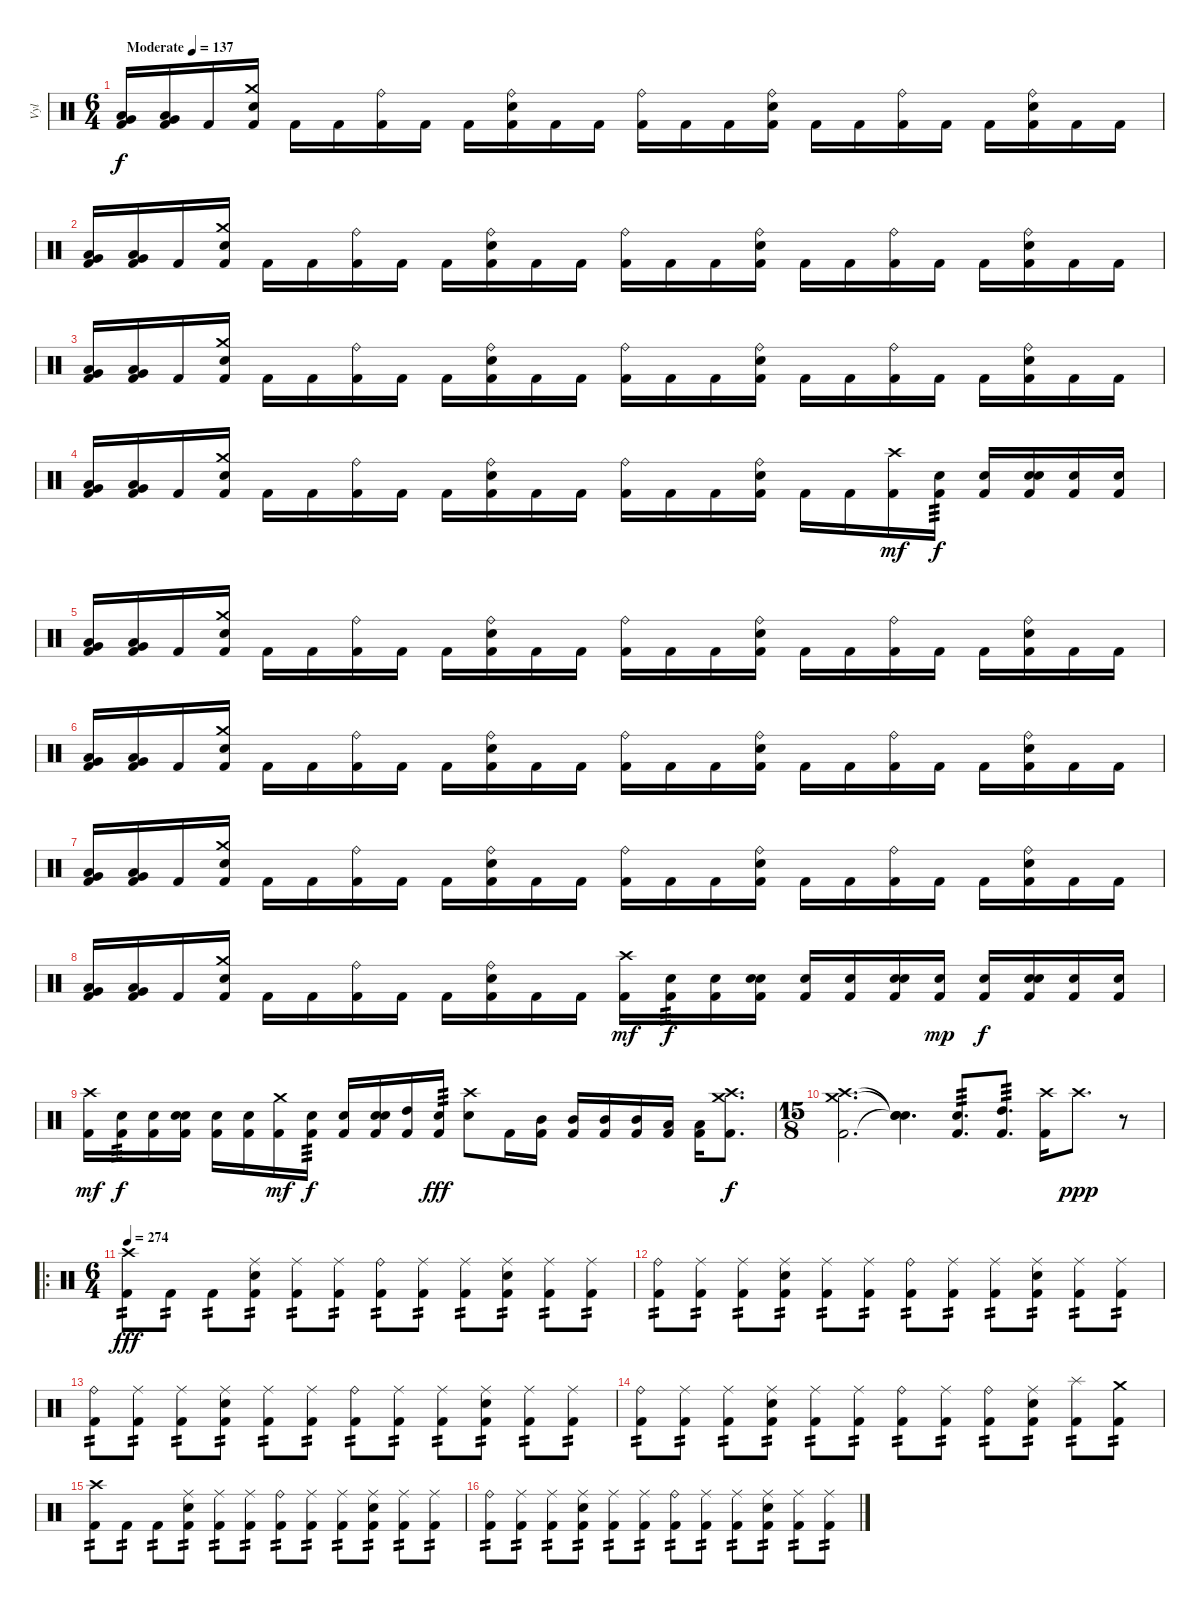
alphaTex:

\track ("Vyl" "Vyl") {instrument percussion}
\staff {score}
\articulation defaults
\ts (6 4)
\tempo (137 "Moderate")
\clef neutral
\ks c
("Low Tom (hit)" "Very Low Tom (hit)" "Kick (hit) 2").16{dy f} ("Low Tom (hit)" "Very Low Tom (hit)" "Kick (hit) 2").16 "Kick (hit) 2".16 ("Crash medium (hit)" "Snare (hit) 2" "Kick (hit) 2").16 "Kick (hit) 2".16 "Kick (hit) 2".16 ("Ride (bell)" "Kick (hit) 2").16 "Kick (hit) 2".16 "Kick (hit) 2".16 ("Ride (bell)" "Snare (hit) 2" "Kick (hit) 2").16 "Kick (hit) 2".16 "Kick (hit) 2".16 ("Ride (bell)" "Kick (hit) 2").16 "Kick (hit) 2".16 "Kick (hit) 2".16 ("Ride (bell)" "Snare (hit) 2" "Kick (hit) 2").16 "Kick (hit) 2".16 "Kick (hit) 2".16 ("Ride (bell)" "Kick (hit) 2").16 "Kick (hit) 2".16 "Kick (hit) 2".16 ("Ride (bell)" "Snare (hit) 2" "Kick (hit) 2").16 "Kick (hit) 2".16 "Kick (hit) 2".16 |
("Low Tom (hit)" "Very Low Tom (hit)" "Kick (hit) 2").16 ("Low Tom (hit)" "Very Low Tom (hit)" "Kick (hit) 2").16 "Kick (hit) 2".16 ("Crash medium (hit)" "Snare (hit) 2" "Kick (hit) 2").16 "Kick (hit) 2".16 "Kick (hit) 2".16 ("Ride (bell)" "Kick (hit) 2").16 "Kick (hit) 2".16 "Kick (hit) 2".16 ("Ride (bell)" "Snare (hit) 2" "Kick (hit) 2").16 "Kick (hit) 2".16 "Kick (hit) 2".16 ("Ride (bell)" "Kick (hit) 2").16 "Kick (hit) 2".16 "Kick (hit) 2".16 ("Ride (bell)" "Snare (hit) 2" "Kick (hit) 2").16 "Kick (hit) 2".16 "Kick (hit) 2".16 ("Ride (bell)" "Kick (hit) 2").16 "Kick (hit) 2".16 "Kick (hit) 2".16 ("Ride (bell)" "Snare (hit) 2" "Kick (hit) 2").16 "Kick (hit) 2".16 "Kick (hit) 2".16 |
("Low Tom (hit)" "Very Low Tom (hit)" "Kick (hit) 2").16 ("Low Tom (hit)" "Very Low Tom (hit)" "Kick (hit) 2").16 "Kick (hit) 2".16 ("Crash medium (hit)" "Snare (hit) 2" "Kick (hit) 2").16 "Kick (hit) 2".16 "Kick (hit) 2".16 ("Ride (bell)" "Kick (hit) 2").16 "Kick (hit) 2".16 "Kick (hit) 2".16 ("Ride (bell)" "Snare (hit) 2" "Kick (hit) 2").16 "Kick (hit) 2".16 "Kick (hit) 2".16 ("Ride (bell)" "Kick (hit) 2").16 "Kick (hit) 2".16 "Kick (hit) 2".16 ("Ride (bell)" "Snare (hit) 2" "Kick (hit) 2").16 "Kick (hit) 2".16 "Kick (hit) 2".16 ("Ride (bell)" "Kick (hit) 2").16 "Kick (hit) 2".16 "Kick (hit) 2".16 ("Ride (bell)" "Snare (hit) 2" "Kick (hit) 2").16 "Kick (hit) 2".16 "Kick (hit) 2".16 |
("Low Tom (hit)" "Very Low Tom (hit)" "Kick (hit) 2").16 ("Low Tom (hit)" "Very Low Tom (hit)" "Kick (hit) 2").16 "Kick (hit) 2".16 ("Crash medium (hit)" "Snare (hit) 2" "Kick (hit) 2").16 "Kick (hit) 2".16 "Kick (hit) 2".16 ("Ride (bell)" "Kick (hit) 2").16 "Kick (hit) 2".16 "Kick (hit) 2".16 ("Ride (bell)" "Snare (hit) 2" "Kick (hit) 2").16 "Kick (hit) 2".16 "Kick (hit) 2".16 ("Ride (bell)" "Kick (hit) 2").16 "Kick (hit) 2".16 "Kick (hit) 2".16 ("Ride (bell)" "Snare (hit) 2" "Kick (hit) 2").16 "Kick (hit) 2".16 "Kick (hit) 2".16 ("Crash high (hit)" "Kick (hit) 2").16{dy mf} ("Snare (hit) 2" "Kick (hit) 2").16{tp 3 dy f} ("Snare (hit) 2" "Kick (hit) 2").16 ("Snare (hit)" "Snare (hit) 2" "Kick (hit) 2").16 ("Snare (hit) 2" "Kick (hit) 2").16 ("Snare (hit) 2" "Kick (hit) 2").16 |
("Low Tom (hit)" "Very Low Tom (hit)" "Kick (hit) 2").16 ("Low Tom (hit)" "Very Low Tom (hit)" "Kick (hit) 2").16 "Kick (hit) 2".16 ("Crash medium (hit)" "Snare (hit) 2" "Kick (hit) 2").16 "Kick (hit) 2".16 "Kick (hit) 2".16 ("Ride (bell)" "Kick (hit) 2").16 "Kick (hit) 2".16 "Kick (hit) 2".16 ("Ride (bell)" "Snare (hit) 2" "Kick (hit) 2").16 "Kick (hit) 2".16 "Kick (hit) 2".16 ("Ride (bell)" "Kick (hit) 2").16 "Kick (hit) 2".16 "Kick (hit) 2".16 ("Ride (bell)" "Snare (hit) 2" "Kick (hit) 2").16 "Kick (hit) 2".16 "Kick (hit) 2".16 ("Ride (bell)" "Kick (hit) 2").16 "Kick (hit) 2".16 "Kick (hit) 2".16 ("Ride (bell)" "Snare (hit) 2" "Kick (hit) 2").16 "Kick (hit) 2".16 "Kick (hit) 2".16 |
("Low Tom (hit)" "Very Low Tom (hit)" "Kick (hit) 2").16 ("Low Tom (hit)" "Very Low Tom (hit)" "Kick (hit) 2").16 "Kick (hit) 2".16 ("Crash medium (hit)" "Snare (hit) 2" "Kick (hit) 2").16 "Kick (hit) 2".16 "Kick (hit) 2".16 ("Ride (bell)" "Kick (hit) 2").16 "Kick (hit) 2".16 "Kick (hit) 2".16 ("Ride (bell)" "Snare (hit) 2" "Kick (hit) 2").16 "Kick (hit) 2".16 "Kick (hit) 2".16 ("Ride (bell)" "Kick (hit) 2").16 "Kick (hit) 2".16 "Kick (hit) 2".16 ("Ride (bell)" "Snare (hit) 2" "Kick (hit) 2").16 "Kick (hit) 2".16 "Kick (hit) 2".16 ("Ride (bell)" "Kick (hit) 2").16 "Kick (hit) 2".16 "Kick (hit) 2".16 ("Ride (bell)" "Snare (hit) 2" "Kick (hit) 2").16 "Kick (hit) 2".16 "Kick (hit) 2".16 |
("Low Tom (hit)" "Very Low Tom (hit)" "Kick (hit) 2").16 ("Low Tom (hit)" "Very Low Tom (hit)" "Kick (hit) 2").16 "Kick (hit) 2".16 ("Crash medium (hit)" "Snare (hit) 2" "Kick (hit) 2").16 "Kick (hit) 2".16 "Kick (hit) 2".16 ("Ride (bell)" "Kick (hit) 2").16 "Kick (hit) 2".16 "Kick (hit) 2".16 ("Ride (bell)" "Snare (hit) 2" "Kick (hit) 2").16 "Kick (hit) 2".16 "Kick (hit) 2".16 ("Ride (bell)" "Kick (hit) 2").16 "Kick (hit) 2".16 "Kick (hit) 2".16 ("Ride (bell)" "Snare (hit) 2" "Kick (hit) 2").16 "Kick (hit) 2".16 "Kick (hit) 2".16 ("Ride (bell)" "Kick (hit) 2").16 "Kick (hit) 2".16 "Kick (hit) 2".16 ("Ride (bell)" "Snare (hit) 2" "Kick (hit) 2").16 "Kick (hit) 2".16 "Kick (hit) 2".16 |
("Low Tom (hit)" "Very Low Tom (hit)" "Kick (hit) 2").16 ("Low Tom (hit)" "Very Low Tom (hit)" "Kick (hit) 2").16 "Kick (hit) 2".16 ("Crash medium (hit)" "Snare (hit) 2" "Kick (hit) 2").16 "Kick (hit) 2".16 "Kick (hit) 2".16 ("Ride (bell)" "Kick (hit) 2").16 "Kick (hit) 2".16 "Kick (hit) 2".16 ("Ride (bell)" "Snare (hit) 2" "Kick (hit) 2").16 "Kick (hit) 2".16 "Kick (hit) 2".16 ("Crash high (hit)" "Kick (hit) 2").16{dy mf} ("Snare (hit) 2" "Kick (hit) 2").16{tp 3 dy f} ("Snare (hit) 2" "Kick (hit) 2").16 ("Snare (hit)" "Snare (hit) 2" "Kick (hit) 2").16 ("Snare (hit) 2" "Kick (hit) 2").16 ("Snare (hit) 2" "Kick (hit) 2").16 ("Snare (hit)" "Snare (hit) 2" "Kick (hit) 2").16 ("Snare (hit) 2" "Kick (hit) 2").16{dy mp} ("Snare (hit) 2" "Kick (hit) 2").16{dy f} ("Snare (hit)" "Snare (hit) 2" "Kick (hit) 2").16 ("Snare (hit) 2" "Kick (hit) 2").16 ("Snare (hit) 2" "Kick (hit) 2").16 |
("Crash high (hit)" "Kick (hit) 2").16{dy mf} ("Snare (hit) 2" "Kick (hit) 2").16{tp 3 dy f} ("Snare (hit) 2" "Kick (hit) 2").16 ("Snare (hit)" "Snare (hit) 2" "Kick (hit) 2").16 ("Snare (hit) 2" "Kick (hit) 2").16 ("Snare (hit) 2" "Kick (hit) 2").16 ("Crash medium (hit)" "Kick (hit) 2").16{dy mf} ("Snare (hit) 2" "Kick (hit) 2").16{tp 3 dy f} ("Snare (hit) 2" "Kick (hit) 2").16 ("Snare (hit)" "Snare (hit) 2" "Kick (hit) 2").16 ("High Tom (hit)" "Kick (hit) 2").16 ("Snare (hit)" "Kick (hit) 2").16{tp 3 dy fff} ("Crash high (hit)" "Snare (hit) 2").8 "Kick (hit) 2".16 ("Mid Tom (hit)" "Kick (hit) 2").16 ("Mid Tom (hit)" "Kick (hit) 2").16 ("Mid Tom (hit)" "Kick (hit) 2").16 ("Mid Tom (hit)" "Kick (hit) 2").16 ("Low Tom (hit)" "Kick (hit) 2").16 ("Low Tom (hit)" "Kick (hit) 2").16 ("Crash medium (hit)" "Crash high (hit)" "Kick (hit) 2").8{d dy f} |
\ts (15 8)
("Crash medium (hit)" "Crash high (hit)" "Kick (hit) 2").2{d} ("Snare (hit)"{t} "Snare (hit)"{t} "Snare (hit)"{t}).4{d} ("Snare (hit) 2" "Kick (hit) 2").8{d tp 3} ("High Tom (hit)" "Kick (hit) 2").8{d tp 3} ("Crash high (hit)" "Kick (hit) 2").16 "Crash high (hit)".8{d dy ppp} r.8 |
\ro
\ts (6 4)
\tempo 274
("Crash high (hit)" "Kick (hit) 2").8{tp 2 dy fff} "Kick (hit) 2".8{tp 2} "Kick (hit) 2".8{tp 2} ("Ride (middle)" "Snare (hit) 2" "Kick (hit) 2").8{tp 2} ("Ride (middle)" "Kick (hit) 2").8{tp 2} ("Ride (middle)" "Kick (hit) 2").8{tp 2} ("Ride (bell)" "Kick (hit) 2").8{tp 2} ("Ride (middle)" "Kick (hit) 2").8{tp 2} ("Ride (middle)" "Kick (hit) 2").8{tp 2} ("Ride (middle)" "Snare (hit) 2" "Kick (hit) 2").8{tp 2} ("Ride (middle)" "Kick (hit) 2").8{tp 2} ("Ride (middle)" "Kick (hit) 2").8{tp 2} |
("Ride (bell)" "Kick (hit) 2").8{tp 2} ("Ride (middle)" "Kick (hit) 2").8{tp 2} ("Ride (middle)" "Kick (hit) 2").8{tp 2} ("Ride (middle)" "Snare (hit) 2" "Kick (hit) 2").8{tp 2} ("Ride (middle)" "Kick (hit) 2").8{tp 2} ("Ride (middle)" "Kick (hit) 2").8{tp 2} ("Ride (bell)" "Kick (hit) 2").8{tp 2} ("Ride (middle)" "Kick (hit) 2").8{tp 2} ("Ride (middle)" "Kick (hit) 2").8{tp 2} ("Ride (middle)" "Snare (hit) 2" "Kick (hit) 2").8{tp 2} ("Ride (middle)" "Kick (hit) 2").8{tp 2} ("Ride (middle)" "Kick (hit) 2").8{tp 2} |
("Ride (bell)" "Kick (hit) 2").8{tp 2} ("Ride (middle)" "Kick (hit) 2").8{tp 2} ("Ride (middle)" "Kick (hit) 2").8{tp 2} ("Ride (middle)" "Snare (hit) 2" "Kick (hit) 2").8{tp 2} ("Ride (middle)" "Kick (hit) 2").8{tp 2} ("Ride (middle)" "Kick (hit) 2").8{tp 2} ("Ride (bell)" "Kick (hit) 2").8{tp 2} ("Ride (middle)" "Kick (hit) 2").8{tp 2} ("Ride (middle)" "Kick (hit) 2").8{tp 2} ("Ride (middle)" "Snare (hit) 2" "Kick (hit) 2").8{tp 2} ("Ride (middle)" "Kick (hit) 2").8{tp 2} ("Ride (middle)" "Kick (hit) 2").8{tp 2} |
("Ride (bell)" "Kick (hit) 2").8{tp 2} ("Ride (middle)" "Kick (hit) 2").8{tp 2} ("Ride (middle)" "Kick (hit) 2").8{tp 2} ("Ride (middle)" "Snare (hit) 2" "Kick (hit) 2").8{tp 2} ("Ride (middle)" "Kick (hit) 2").8{tp 2} ("Ride (middle)" "Kick (hit) 2").8{tp 2} ("Ride (bell)" "Kick (hit) 2").8{tp 2} ("Ride (middle)" "Kick (hit) 2").8{tp 2} ("Ride (bell)" "Kick (hit) 2").8{tp 2} ("Ride (middle)" "Snare (hit) 2" "Kick (hit) 2").8{tp 2} ("Splash (hit)" "Kick (hit) 2").8{tp 2} ("Crash medium (hit)" "Kick (hit) 2").8{tp 2} |
("Crash high (hit)" "Kick (hit) 2").8{tp 2} "Kick (hit) 2".8{tp 2} "Kick (hit) 2".8{tp 2} ("Ride (middle)" "Snare (hit) 2" "Kick (hit) 2").8{tp 2} ("Ride (middle)" "Kick (hit) 2").8{tp 2} ("Ride (middle)" "Kick (hit) 2").8{tp 2} ("Ride (bell)" "Kick (hit) 2").8{tp 2} ("Ride (middle)" "Kick (hit) 2").8{tp 2} ("Ride (middle)" "Kick (hit) 2").8{tp 2} ("Ride (middle)" "Snare (hit) 2" "Kick (hit) 2").8{tp 2} ("Ride (middle)" "Kick (hit) 2").8{tp 2} ("Ride (middle)" "Kick (hit) 2").8{tp 2} |
("Ride (bell)" "Kick (hit) 2").8{tp 2} ("Ride (middle)" "Kick (hit) 2").8{tp 2} ("Ride (middle)" "Kick (hit) 2").8{tp 2} ("Ride (middle)" "Snare (hit) 2" "Kick (hit) 2").8{tp 2} ("Ride (middle)" "Kick (hit) 2").8{tp 2} ("Ride (middle)" "Kick (hit) 2").8{tp 2} ("Ride (bell)" "Kick (hit) 2").8{tp 2} ("Ride (middle)" "Kick (hit) 2").8{tp 2} ("Ride (middle)" "Kick (hit) 2").8{tp 2} ("Ride (middle)" "Snare (hit) 2" "Kick (hit) 2").8{tp 2} ("Ride (middle)" "Kick (hit) 2").8{tp 2} ("Ride (middle)" "Kick (hit) 2").8{tp 2}
